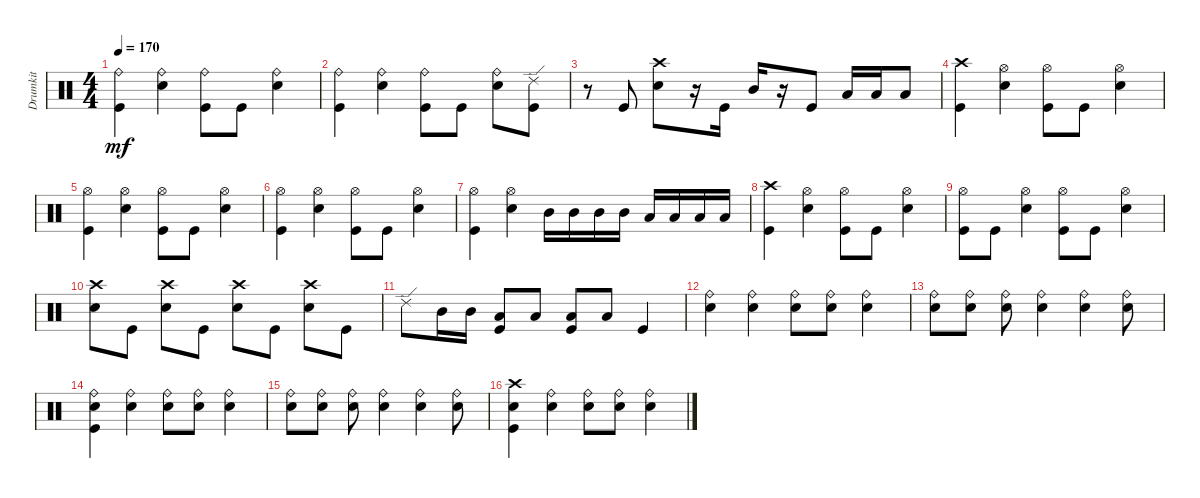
\track ("Drumkit" "Drumkit") {instrument percussion}
\staff {score}
\articulation defaults
\ts (4 4)
\tempo 170
\clef neutral
\ks c
("Ride (bell)" "Kick (hit)").4{dy mf} ("Ride (bell)" "Snare (hit) 2").4 ("Kick (hit)" "Ride (bell)").8 "Kick (hit)".8 ("Snare (hit) 2" "Ride (bell)").4 |
("Ride (bell)" "Kick (hit)").4 ("Ride (bell)" "Snare (hit) 2").4 ("Kick (hit)" "Ride (bell)").8 "Kick (hit)".8 ("Snare (hit) 2" "Ride (bell)").8 ("Ride (edge) 2" "Kick (hit)").8 |
r.8 "Kick (hit)".8 ("Snare (hit) 2" "Crash high (hit)").8 r.16 "Kick (hit)".16 "Mid Tom (hit)".16 r.16 "Kick (hit)".8 "Low Tom (hit)".16 "Low Tom (hit)".16 "Low Floor Tom (hit)".8 |
("Kick (hit)" "Crash high (hit)").4 ("Snare (hit) 2" "Hi-Hat (open)").4 ("Kick (hit)" "Hi-Hat (open)").8 "Kick (hit)".8 ("Snare (hit) 2" "Hi-Hat (open)").4 |
("Hi-Hat (open)" "Kick (hit)").4 ("Snare (hit) 2" "Hi-Hat (open)").4 ("Kick (hit)" "Hi-Hat (open)").8 "Kick (hit)".8 ("Snare (hit) 2" "Hi-Hat (open)").4 |
("Hi-Hat (open)" "Kick (hit)").4 ("Snare (hit) 2" "Hi-Hat (open)").4 ("Kick (hit)" "Hi-Hat (open)").8 "Kick (hit)".8 ("Snare (hit) 2" "Hi-Hat (open)").4 |
("Hi-Hat (open)" "Kick (hit)").4 ("Snare (hit) 2" "Hi-Hat (open)").4 "Mid Tom (hit)".16 "Mid Tom (hit)".16 "Mid Tom (hit)".16 "Mid Tom (hit)".16 "Low Tom (hit)".16 "Low Tom (hit)".16 "Low Tom (hit)".16 "Low Tom (hit)".16 |
("Kick (hit)" "Crash high (hit)").4 ("Snare (hit) 2" "Hi-Hat (open)").4 ("Kick (hit)" "Hi-Hat (open)").8 "Kick (hit)".8 ("Snare (hit) 2" "Hi-Hat (open)").4 |
("Kick (hit)" "Hi-Hat (open)").8 "Kick (hit)".8 ("Snare (hit) 2" "Hi-Hat (open)").4 ("Kick (hit)" "Hi-Hat (open)").8 "Kick (hit)".8 ("Snare (hit) 2" "Hi-Hat (open)").4 |
("Snare (hit) 2" "Crash high (hit)").8 "Kick (hit)".8 ("Snare (hit) 2" "Crash high (hit)").8 "Kick (hit)".8 ("Snare (hit) 2" "Crash high (hit)").8 "Kick (hit)".8 ("Snare (hit) 2" "Crash high (hit)").8 "Kick (hit)".8 |
"Ride (edge) 2".8 "Mid Tom (hit)".16 "Mid Tom (hit)".16 ("Low Tom (hit)" "Kick (hit)").8 "Low Tom (hit)".8 ("Low Floor Tom (hit)" "Kick (hit)").8 "Low Floor Tom (hit)".8 "Kick (hit)".4 |
("Snare (hit) 2" "Ride (bell)").4 ("Snare (hit) 2" "Ride (bell)").4 ("Snare (hit) 2" "Ride (bell)").8 ("Snare (hit) 2" "Ride (bell)").8 ("Snare (hit) 2" "Ride (bell)").4 |
("Snare (hit) 2" "Ride (bell)").8 ("Snare (hit) 2" "Ride (bell)").8 ("Snare (hit) 2" "Ride (bell)").8 ("Snare (hit) 2" "Ride (bell)").4 ("Snare (hit) 2" "Ride (bell)").4 ("Snare (hit) 2" "Ride (bell)").8 |
("Snare (hit) 2" "Ride (bell)" "Kick (hit)").4 ("Snare (hit) 2" "Ride (bell)").4 ("Snare (hit) 2" "Ride (bell)").8 ("Snare (hit) 2" "Ride (bell)").8 ("Snare (hit) 2" "Ride (bell)").4 |
("Snare (hit) 2" "Ride (bell)").8 ("Snare (hit) 2" "Ride (bell)").8 ("Snare (hit) 2" "Ride (bell)").8 ("Snare (hit) 2" "Ride (bell)").4 ("Snare (hit) 2" "Ride (bell)").4 ("Snare (hit) 2" "Ride (bell)").8 |
("Snare (hit) 2" "Kick (hit)" "Crash high (hit)").4 ("Snare (hit) 2" "Ride (bell)").4 ("Snare (hit) 2" "Ride (bell)").8 ("Snare (hit) 2" "Ride (bell)").8 ("Snare (hit) 2" "Ride (bell)").4
